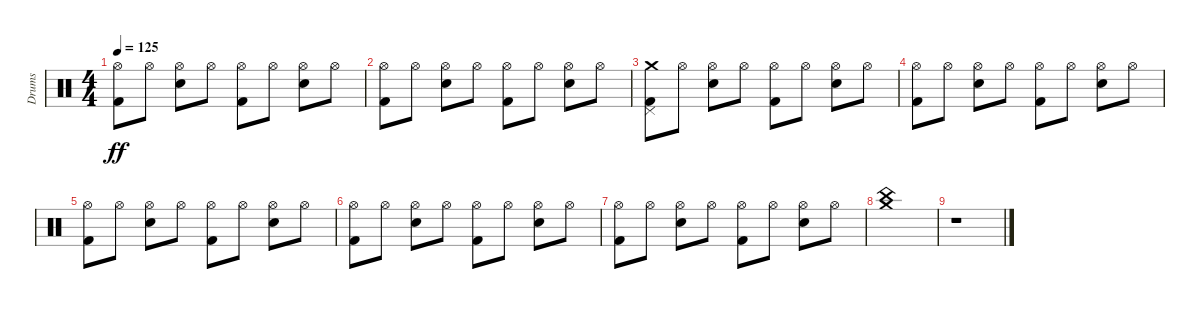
\track ("Drums" "Drums") {instrument percussion}
\staff {score}
\articulation defaults
\ts (4 4)
\tempo 125
\clef neutral
\ks c
("Kick (hit) 2" "Hi-Hat (open)").8{dy ff} "Hi-Hat (open)".8 ("Hi-Hat (open)" "Snare (hit) 2").8 "Hi-Hat (open)".8 ("Hi-Hat (open)" "Kick (hit) 2").8 "Hi-Hat (open)".8 ("Hi-Hat (open)" "Snare (hit) 2").8 "Hi-Hat (open)".8 |
("Kick (hit) 2" "Hi-Hat (open)").8 "Hi-Hat (open)".8 ("Hi-Hat (open)" "Snare (hit) 2").8 "Hi-Hat (open)".8 ("Hi-Hat (open)" "Kick (hit) 2").8 "Hi-Hat (open)".8 ("Hi-Hat (open)" "Snare (hit) 2").8 "Hi-Hat (open)".8 |
("Pedal Hi-Hat (hit)" "Kick (hit) 2" "Crash medium (hit)").8 "Hi-Hat (open)".8 ("Hi-Hat (open)" "Snare (hit) 2").8 "Hi-Hat (open)".8 ("Hi-Hat (open)" "Kick (hit) 2").8 "Hi-Hat (open)".8 ("Hi-Hat (open)" "Snare (hit) 2").8 "Hi-Hat (open)".8 |
("Kick (hit) 2" "Hi-Hat (open)").8 "Hi-Hat (open)".8 ("Hi-Hat (open)" "Snare (hit) 2").8 "Hi-Hat (open)".8 ("Hi-Hat (open)" "Kick (hit) 2").8 "Hi-Hat (open)".8 ("Hi-Hat (open)" "Snare (hit) 2").8 "Hi-Hat (open)".8 |
("Kick (hit) 2" "Hi-Hat (open)").8 "Hi-Hat (open)".8 ("Hi-Hat (open)" "Snare (hit) 2").8 "Hi-Hat (open)".8 ("Hi-Hat (open)" "Kick (hit) 2").8 "Hi-Hat (open)".8 ("Hi-Hat (open)" "Snare (hit) 2").8 "Hi-Hat (open)".8 |
("Kick (hit) 2" "Hi-Hat (open)").8 "Hi-Hat (open)".8 ("Hi-Hat (open)" "Snare (hit) 2").8 "Hi-Hat (open)".8 ("Hi-Hat (open)" "Kick (hit) 2").8 "Hi-Hat (open)".8 ("Hi-Hat (open)" "Snare (hit) 2").8 "Hi-Hat (open)".8 |
("Kick (hit) 2" "Hi-Hat (open)").8 "Hi-Hat (open)".8 ("Hi-Hat (open)" "Snare (hit) 2").8 "Hi-Hat (open)".8 ("Hi-Hat (open)" "Kick (hit) 2").8 "Hi-Hat (open)".8 ("Hi-Hat (open)" "Snare (hit) 2").8 "Hi-Hat (open)".8 |
("Crash medium (hit)" "China (hit)").1 |
r.1
